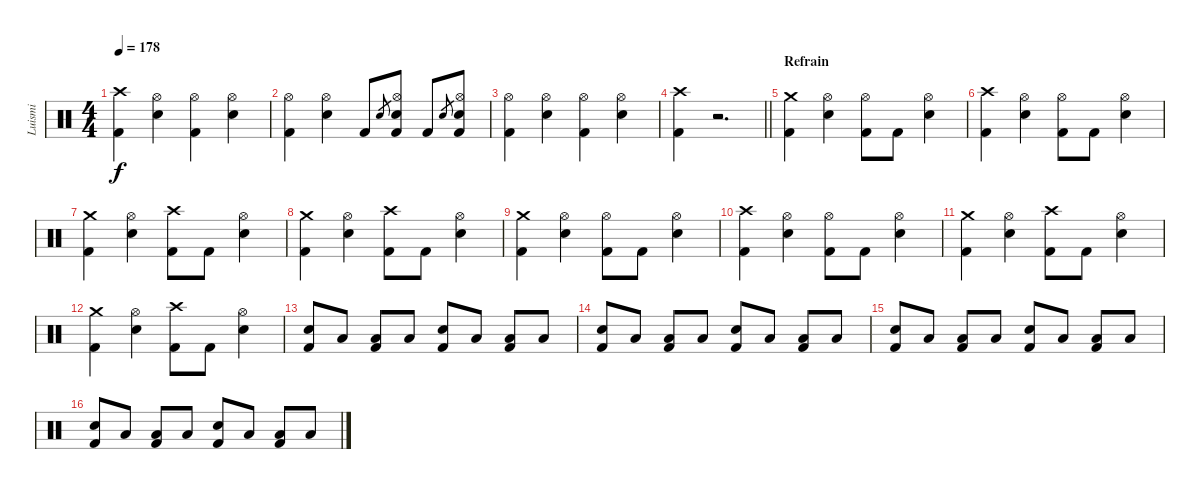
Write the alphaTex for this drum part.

\track ("Luismi" "Luismi") {instrument percussion}
\staff {score}
\articulation defaults
\ts (4 4)
\tempo 178
\clef neutral
\ks c
("Crash high (hit)" "Kick (hit) 2").4{dy f} ("Hi-Hat (open)" "Snare (hit) 2").4 ("Hi-Hat (open)" "Kick (hit) 2").4 ("Hi-Hat (open)" "Snare (hit) 2").4 |
("Hi-Hat (open)" "Kick (hit) 2").4 ("Hi-Hat (open)" "Snare (hit) 2").4 "Kick (hit) 2".8 "Snare (hit) 2".8{gr} ("Hi-Hat (open)" "Snare (hit) 2" "Kick (hit) 2").8 "Kick (hit) 2".8 "Snare (hit) 2".8{gr} ("Hi-Hat (open)" "Snare (hit) 2" "Kick (hit) 2").8 |
("Hi-Hat (open)" "Kick (hit) 2").4 ("Hi-Hat (open)" "Snare (hit) 2").4 ("Hi-Hat (open)" "Kick (hit) 2").4 ("Hi-Hat (open)" "Snare (hit) 2").4 |
\barLineRight lightlight
("Crash high (hit)" "Kick (hit) 2").4 r.2{d} |
\section ("" "Refrain")
("Crash medium (hit)" "Kick (hit) 2").4 ("Hi-Hat (open)" "Snare (hit) 2").4 ("Hi-Hat (open)" "Kick (hit) 2").8 "Kick (hit) 2".8 ("Hi-Hat (open)" "Snare (hit) 2").4 |
("Crash high (hit)" "Kick (hit) 2").4 ("Hi-Hat (open)" "Snare (hit) 2").4 ("Hi-Hat (open)" "Kick (hit) 2").8 "Kick (hit) 2".8 ("Hi-Hat (open)" "Snare (hit) 2").4 |
("Crash medium (hit)" "Kick (hit) 2").4 ("Hi-Hat (open)" "Snare (hit) 2").4 ("Crash high (hit)" "Kick (hit) 2").8 "Kick (hit) 2".8 ("Hi-Hat (open)" "Snare (hit) 2").4 |
("Crash medium (hit)" "Kick (hit) 2").4 ("Hi-Hat (open)" "Snare (hit) 2").4 ("Crash high (hit)" "Kick (hit) 2").8 "Kick (hit) 2".8 ("Hi-Hat (open)" "Snare (hit) 2").4 |
("Crash medium (hit)" "Kick (hit) 2").4 ("Hi-Hat (open)" "Snare (hit) 2").4 ("Hi-Hat (open)" "Kick (hit) 2").8 "Kick (hit) 2".8 ("Hi-Hat (open)" "Snare (hit) 2").4 |
("Crash high (hit)" "Kick (hit) 2").4 ("Hi-Hat (open)" "Snare (hit) 2").4 ("Hi-Hat (open)" "Kick (hit) 2").8 "Kick (hit) 2".8 ("Hi-Hat (open)" "Snare (hit) 2").4 |
("Crash medium (hit)" "Kick (hit) 2").4 ("Hi-Hat (open)" "Snare (hit) 2").4 ("Crash high (hit)" "Kick (hit) 2").8 "Kick (hit) 2".8 ("Hi-Hat (open)" "Snare (hit) 2").4 |
("Crash medium (hit)" "Kick (hit) 2").4 ("Hi-Hat (open)" "Snare (hit) 2").4 ("Crash high (hit)" "Kick (hit) 2").8 "Kick (hit) 2".8 ("Hi-Hat (open)" "Snare (hit) 2").4 |
("Snare (hit) 2" "Kick (hit) 2").8 "Low Tom (hit)".8 ("Low Floor Tom (hit)" "Kick (hit) 2").8 "Low Floor Tom (hit)".8 ("Snare (hit) 2" "Kick (hit) 2").8 "Low Tom (hit)".8 ("Low Floor Tom (hit)" "Kick (hit) 2").8 "Low Floor Tom (hit)".8 |
("Snare (hit) 2" "Kick (hit) 2").8 "Low Tom (hit)".8 ("Low Floor Tom (hit)" "Kick (hit) 2").8 "Low Floor Tom (hit)".8 ("Snare (hit) 2" "Kick (hit) 2").8 "Low Tom (hit)".8 ("Low Floor Tom (hit)" "Kick (hit) 2").8 "Low Floor Tom (hit)".8 |
("Snare (hit) 2" "Kick (hit) 2").8 "Low Tom (hit)".8 ("Low Floor Tom (hit)" "Kick (hit) 2").8 "Low Floor Tom (hit)".8 ("Snare (hit) 2" "Kick (hit) 2").8 "Low Tom (hit)".8 ("Low Floor Tom (hit)" "Kick (hit) 2").8 "Low Floor Tom (hit)".8 |
("Snare (hit) 2" "Kick (hit) 2").8 "Low Tom (hit)".8 ("Low Floor Tom (hit)" "Kick (hit) 2").8 "Low Floor Tom (hit)".8 ("Snare (hit) 2" "Kick (hit) 2").8 "Low Tom (hit)".8 ("Low Floor Tom (hit)" "Kick (hit) 2").8 "Low Floor Tom (hit)".8
